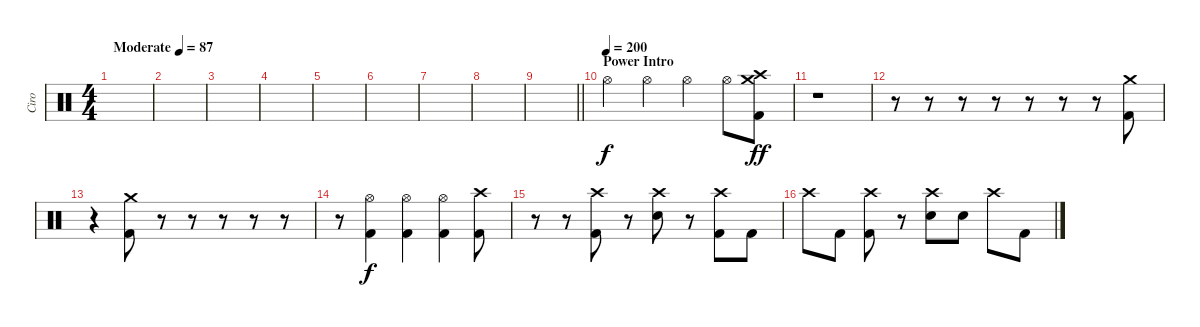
\track ("Ciro" "Ciro") {instrument percussion}
\staff {score}
\articulation defaults
\ts (4 4)
\tempo (87 "Moderate")
\clef neutral
\ks c
|
|
|
|
|
|
|
|
\barLineRight lightlight
|
\section ("" "Power Intro")
\tempo 190
\tempo (200)
"Hi-Hat (open)".4{volume 13 balance 8} "Hi-Hat (open)".4 "Hi-Hat (open)".4 "Hi-Hat (open)".8 ("Crash high (hit)" "Crash medium (hit)" "Kick (hit) 2").8{dy ff} |
r.1 |
r.8 r.8 r.8 r.8 r.8 r.8 r.8 ("Crash medium (hit)" "Kick (hit) 2").8 |
r.4 ("Crash medium (hit)" "Kick (hit) 2").8 r.8 r.8 r.8 r.8 r.8 |
r.8 ("Hi-Hat (open)" "Kick (hit) 2").4{dy f} ("Hi-Hat (open)" "Kick (hit) 2").4 ("Hi-Hat (open)" "Kick (hit) 2").4 ("Crash high (hit)" "Kick (hit) 2").8 |
r.8 r.8 ("Crash high (hit)" "Kick (hit) 2").8 r.8 ("Crash high (hit)" "Snare (hit) 2").8 r.8 ("Crash high (hit)" "Kick (hit) 2").8 "Kick (hit) 2".8 |
"Crash high (hit)".8 "Kick (hit) 2".8 ("Crash high (hit)" "Kick (hit) 2").8 r.8 ("Crash high (hit)" "Snare (hit) 2").8 "Snare (hit) 2".8 "Crash high (hit)".8 "Kick (hit) 2".8
